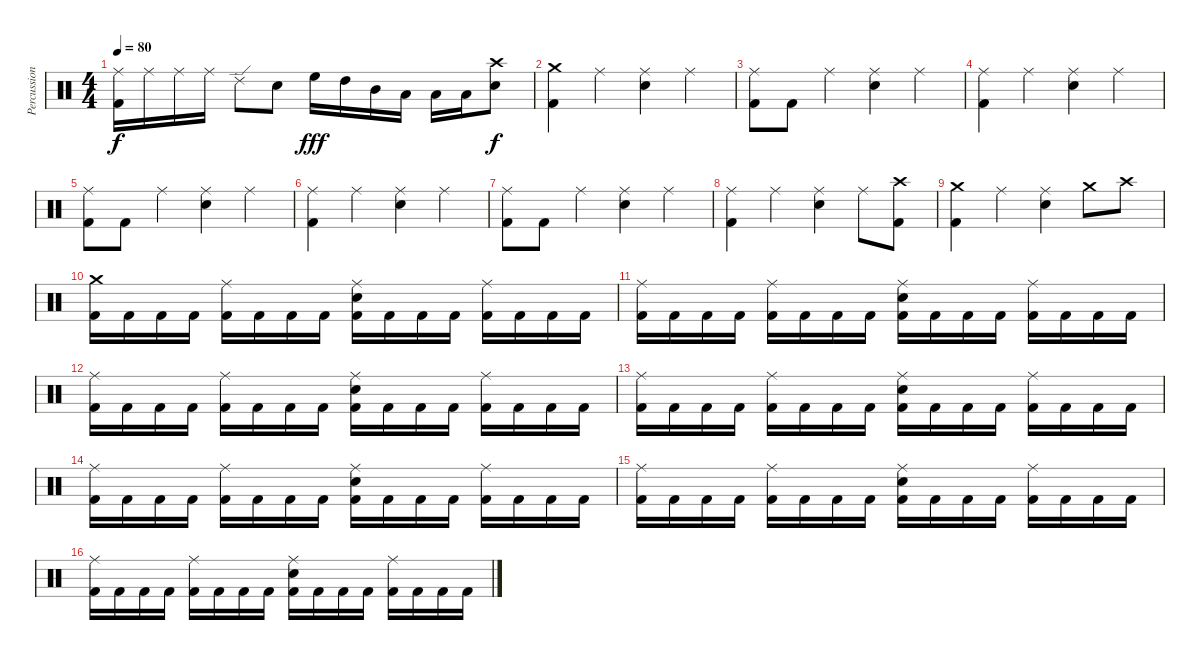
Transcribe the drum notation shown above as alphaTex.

\track ("Percussion" "Percussion") {instrument percussion}
\staff {score}
\articulation defaults
\ts (4 4)
\tempo 80
\clef neutral
\ks c
("Ride (middle)" "Kick (hit) 2").16{dy f} "Ride (middle)".16 "Ride (middle)".16 "Ride (middle)".16 "Ride (edge) 2".8 "Snare (hit) 2".8 "High Floor Tom (hit)".16{dy fff} "High Tom (hit)".16 "Mid Tom (hit)".16 "Low Tom (hit)".16 "Low Tom (hit)".16 "Low Tom (hit)".16 ("Crash high (hit)" "Snare (hit) 2").8{dy f} |
("Crash medium (hit)" "Kick (hit) 2").4 "Ride (middle)".4 ("Ride (middle)" "Snare (hit) 2").4 "Ride (middle)".4 |
("Ride (middle)" "Kick (hit) 2").8 "Kick (hit) 2".8 "Ride (middle)".4 ("Ride (middle)" "Snare (hit) 2").4 "Ride (middle)".4 |
("Ride (middle)" "Kick (hit) 2").4 "Ride (middle)".4 ("Ride (middle)" "Snare (hit) 2").4 "Ride (middle)".4 |
("Ride (middle)" "Kick (hit) 2").8 "Kick (hit) 2".8 "Ride (middle)".4 ("Ride (middle)" "Snare (hit) 2").4 "Ride (middle)".4 |
("Ride (middle)" "Kick (hit) 2").4 "Ride (middle)".4 ("Ride (middle)" "Snare (hit) 2").4 "Ride (middle)".4 |
("Ride (middle)" "Kick (hit) 2").8 "Kick (hit) 2".8 "Ride (middle)".4 ("Ride (middle)" "Snare (hit) 2").4 "Ride (middle)".4 |
("Ride (middle)" "Kick (hit) 2").4 "Ride (middle)".4 ("Ride (middle)" "Snare (hit) 2").4 "Ride (middle)".8 ("Crash high (hit)" "Kick (hit) 2").8 |
("Crash medium (hit)" "Kick (hit) 2").4 "Ride (middle)".4 ("Ride (middle)" "Snare (hit) 2").4 "Crash medium (hit)".8 "Crash high (hit)".8 |
("Crash medium (hit)" "Kick (hit) 2").16 "Kick (hit) 2".16 "Kick (hit) 2".16 "Kick (hit) 2".16 ("Ride (middle)" "Kick (hit) 2").16 "Kick (hit) 2".16 "Kick (hit) 2".16 "Kick (hit) 2".16 ("Ride (middle)" "Snare (hit) 2" "Kick (hit) 2").16 "Kick (hit) 2".16 "Kick (hit) 2".16 "Kick (hit) 2".16 ("Ride (middle)" "Kick (hit) 2").16 "Kick (hit) 2".16 "Kick (hit) 2".16 "Kick (hit) 2".16 |
("Ride (middle)" "Kick (hit) 2").16 "Kick (hit) 2".16 "Kick (hit) 2".16 "Kick (hit) 2".16 ("Ride (middle)" "Kick (hit) 2").16 "Kick (hit) 2".16 "Kick (hit) 2".16 "Kick (hit) 2".16 ("Ride (middle)" "Snare (hit) 2" "Kick (hit) 2").16 "Kick (hit) 2".16 "Kick (hit) 2".16 "Kick (hit) 2".16 ("Ride (middle)" "Kick (hit) 2").16 "Kick (hit) 2".16 "Kick (hit) 2".16 "Kick (hit) 2".16 |
("Ride (middle)" "Kick (hit) 2").16 "Kick (hit) 2".16 "Kick (hit) 2".16 "Kick (hit) 2".16 ("Ride (middle)" "Kick (hit) 2").16 "Kick (hit) 2".16 "Kick (hit) 2".16 "Kick (hit) 2".16 ("Ride (middle)" "Snare (hit) 2" "Kick (hit) 2").16 "Kick (hit) 2".16 "Kick (hit) 2".16 "Kick (hit) 2".16 ("Ride (middle)" "Kick (hit) 2").16 "Kick (hit) 2".16 "Kick (hit) 2".16 "Kick (hit) 2".16 |
("Ride (middle)" "Kick (hit) 2").16 "Kick (hit) 2".16 "Kick (hit) 2".16 "Kick (hit) 2".16 ("Ride (middle)" "Kick (hit) 2").16 "Kick (hit) 2".16 "Kick (hit) 2".16 "Kick (hit) 2".16 ("Ride (middle)" "Snare (hit) 2" "Kick (hit) 2").16 "Kick (hit) 2".16 "Kick (hit) 2".16 "Kick (hit) 2".16 ("Ride (middle)" "Kick (hit) 2").16 "Kick (hit) 2".16 "Kick (hit) 2".16 "Kick (hit) 2".16 |
("Ride (middle)" "Kick (hit) 2").16 "Kick (hit) 2".16 "Kick (hit) 2".16 "Kick (hit) 2".16 ("Ride (middle)" "Kick (hit) 2").16 "Kick (hit) 2".16 "Kick (hit) 2".16 "Kick (hit) 2".16 ("Ride (middle)" "Snare (hit) 2" "Kick (hit) 2").16 "Kick (hit) 2".16 "Kick (hit) 2".16 "Kick (hit) 2".16 ("Ride (middle)" "Kick (hit) 2").16 "Kick (hit) 2".16 "Kick (hit) 2".16 "Kick (hit) 2".16 |
("Ride (middle)" "Kick (hit) 2").16 "Kick (hit) 2".16 "Kick (hit) 2".16 "Kick (hit) 2".16 ("Ride (middle)" "Kick (hit) 2").16 "Kick (hit) 2".16 "Kick (hit) 2".16 "Kick (hit) 2".16 ("Ride (middle)" "Snare (hit) 2" "Kick (hit) 2").16 "Kick (hit) 2".16 "Kick (hit) 2".16 "Kick (hit) 2".16 ("Ride (middle)" "Kick (hit) 2").16 "Kick (hit) 2".16 "Kick (hit) 2".16 "Kick (hit) 2".16 |
("Ride (middle)" "Kick (hit) 2").16 "Kick (hit) 2".16 "Kick (hit) 2".16 "Kick (hit) 2".16 ("Ride (middle)" "Kick (hit) 2").16 "Kick (hit) 2".16 "Kick (hit) 2".16 "Kick (hit) 2".16 ("Ride (middle)" "Snare (hit) 2" "Kick (hit) 2").16 "Kick (hit) 2".16 "Kick (hit) 2".16 "Kick (hit) 2".16 ("Ride (middle)" "Kick (hit) 2").16 "Kick (hit) 2".16 "Kick (hit) 2".16 "Kick (hit) 2".16
